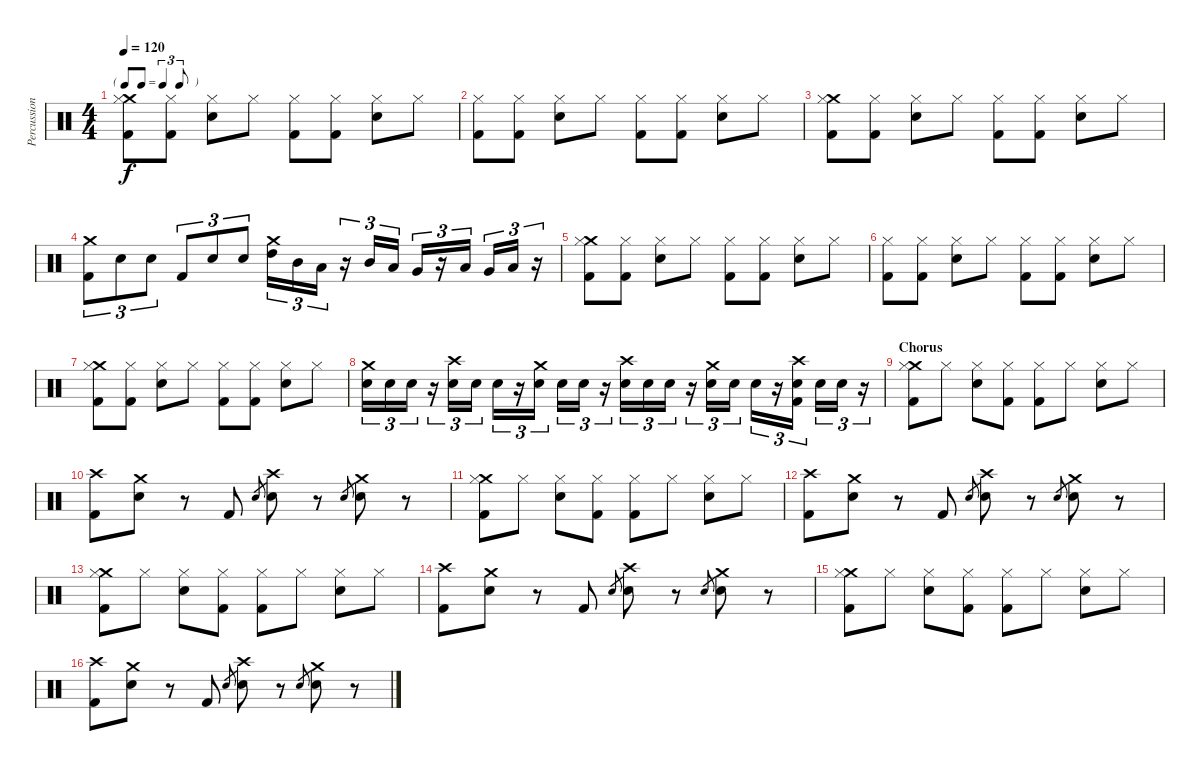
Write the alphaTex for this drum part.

\track ("Percussion" "Percussion") {instrument percussion}
\staff {score}
\articulation defaults
\ts (4 4)
\tf triplet8th
\tempo 120
\clef neutral
\ks c
("Crash medium (hit)" "Hi-Hat (closed)" "Kick (hit) 2").8{dy f} ("Hi-Hat (closed)" "Kick (hit) 2").8 ("Hi-Hat (closed)" "Electric Snare (hit)").8 "Hi-Hat (closed)".8 ("Hi-Hat (closed)" "Kick (hit) 2").8 ("Hi-Hat (closed)" "Kick (hit) 2").8 ("Hi-Hat (closed)" "Electric Snare (hit)").8 "Hi-Hat (closed)".8 |
("Hi-Hat (closed)" "Kick (hit) 2").8 ("Hi-Hat (closed)" "Kick (hit) 2").8 ("Hi-Hat (closed)" "Electric Snare (hit)").8 "Hi-Hat (closed)".8 ("Hi-Hat (closed)" "Kick (hit) 2").8 ("Hi-Hat (closed)" "Kick (hit) 2").8 ("Hi-Hat (closed)" "Electric Snare (hit)").8 "Hi-Hat (closed)".8 |
("Crash medium (hit)" "Hi-Hat (closed)" "Kick (hit) 2").8 ("Hi-Hat (closed)" "Kick (hit) 2").8 ("Hi-Hat (closed)" "Electric Snare (hit)").8 "Hi-Hat (closed)".8 ("Hi-Hat (closed)" "Kick (hit) 2").8 ("Hi-Hat (closed)" "Kick (hit) 2").8 ("Hi-Hat (closed)" "Electric Snare (hit)").8 "Hi-Hat (closed)".8 |
("Crash medium (hit)" "Kick (hit) 2").8{tu (3 2)} "Electric Snare (hit)".8{tu (3 2)} "Electric Snare (hit)".8{tu (3 2)} "Kick (hit) 2".8{tu (3 2)} "Electric Snare (hit)".8{tu (3 2)} "Electric Snare (hit)".8{tu (3 2)} ("Crash medium (hit)" "High Tom (hit)").16{tu (3 2)} "Mid Tom (hit)".16{tu (3 2)} "Low Tom (hit)".16{tu (3 2)} r.16{tu (3 2)} "Mid Tom (hit)".16{tu (3 2)} "Low Tom (hit)".16{tu (3 2)} "Very Low Tom (hit)".16{tu (3 2)} r.16{tu (3 2)} "Low Tom (hit)".16{tu (3 2)} "Very Low Tom (hit)".16{tu (3 2)} "Low Floor Tom (hit)".16{tu (3 2)} r.16{tu (3 2)} |
("Crash medium (hit)" "Hi-Hat (closed)" "Kick (hit) 2").8 ("Hi-Hat (closed)" "Kick (hit) 2").8 ("Hi-Hat (closed)" "Electric Snare (hit)").8 "Hi-Hat (closed)".8 ("Hi-Hat (closed)" "Kick (hit) 2").8 ("Hi-Hat (closed)" "Kick (hit) 2").8 ("Hi-Hat (closed)" "Electric Snare (hit)").8 "Hi-Hat (closed)".8 |
("Hi-Hat (closed)" "Kick (hit) 2").8 ("Hi-Hat (closed)" "Kick (hit) 2").8 ("Hi-Hat (closed)" "Electric Snare (hit)").8 "Hi-Hat (closed)".8 ("Hi-Hat (closed)" "Kick (hit) 2").8 ("Hi-Hat (closed)" "Kick (hit) 2").8 ("Hi-Hat (closed)" "Electric Snare (hit)").8 "Hi-Hat (closed)".8 |
("Crash medium (hit)" "Hi-Hat (closed)" "Kick (hit) 2").8 ("Hi-Hat (closed)" "Kick (hit) 2").8 ("Hi-Hat (closed)" "Electric Snare (hit)").8 "Hi-Hat (closed)".8 ("Hi-Hat (closed)" "Kick (hit) 2").8 ("Hi-Hat (closed)" "Kick (hit) 2").8 ("Hi-Hat (closed)" "Electric Snare (hit)").8 "Hi-Hat (closed)".8 |
("Crash medium (hit)" "Electric Snare (hit)").16{tu (3 2)} "Electric Snare (hit)".16{tu (3 2)} "Electric Snare (hit)".16{tu (3 2)} r.16{tu (3 2)} ("Crash high (hit)" "Electric Snare (hit)").16{tu (3 2)} "Electric Snare (hit)".16{tu (3 2)} "Electric Snare (hit)".16{tu (3 2)} r.16{tu (3 2)} ("Crash medium (hit)" "Electric Snare (hit)").16{tu (3 2)} "Electric Snare (hit)".16{tu (3 2)} "Electric Snare (hit)".16{tu (3 2)} r.16{tu (3 2)} ("Crash high (hit)" "Electric Snare (hit)").16{tu (3 2)} "Electric Snare (hit)".16{tu (3 2)} "Electric Snare (hit)".16{tu (3 2)} r.16{tu (3 2)} ("Crash medium (hit)" "Electric Snare (hit)").16{tu (3 2)} "Electric Snare (hit)".16{tu (3 2)} "Electric Snare (hit)".16{tu (3 2)} r.16{tu (3 2)} ("Crash high (hit)" "Electric Snare (hit)" "Kick (hit) 2").16{tu (3 2)} "Electric Snare (hit)".16{tu (3 2)} "Electric Snare (hit)".16{tu (3 2)} r.16{tu (3 2)} |
\section ("" "Chorus")
("Crash medium (hit)" "Hi-Hat (closed)" "Kick (hit) 2").8 "Hi-Hat (closed)".8 ("Hi-Hat (closed)" "Electric Snare (hit)").8 ("Hi-Hat (closed)" "Kick (hit) 2").8 ("Hi-Hat (closed)" "Kick (hit) 2").8 "Hi-Hat (closed)".8 ("Hi-Hat (closed)" "Electric Snare (hit)").8 "Hi-Hat (closed)".8 |
("Crash high (hit)" "Kick (hit) 2").8 ("Crash medium (hit)" "Electric Snare (hit)").8 r.8 "Kick (hit) 2".8 "Electric Snare (hit)".8{gr} ("Crash high (hit)" "Electric Snare (hit)").8 r.8 "Electric Snare (hit)".8{gr} ("Crash medium (hit)" "Electric Snare (hit)").8 r.8 |
("Crash medium (hit)" "Hi-Hat (closed)" "Kick (hit) 2").8 "Hi-Hat (closed)".8 ("Hi-Hat (closed)" "Electric Snare (hit)").8 ("Hi-Hat (closed)" "Kick (hit) 2").8 ("Hi-Hat (closed)" "Kick (hit) 2").8 "Hi-Hat (closed)".8 ("Hi-Hat (closed)" "Electric Snare (hit)").8 "Hi-Hat (closed)".8 |
("Crash high (hit)" "Kick (hit) 2").8 ("Crash medium (hit)" "Electric Snare (hit)").8 r.8 "Kick (hit) 2".8 "Electric Snare (hit)".8{gr} ("Crash high (hit)" "Electric Snare (hit)").8 r.8 "Electric Snare (hit)".8{gr} ("Crash medium (hit)" "Electric Snare (hit)").8 r.8 |
("Crash medium (hit)" "Hi-Hat (closed)" "Kick (hit) 2").8 "Hi-Hat (closed)".8 ("Hi-Hat (closed)" "Electric Snare (hit)").8 ("Hi-Hat (closed)" "Kick (hit) 2").8 ("Hi-Hat (closed)" "Kick (hit) 2").8 "Hi-Hat (closed)".8 ("Hi-Hat (closed)" "Electric Snare (hit)").8 "Hi-Hat (closed)".8 |
("Crash high (hit)" "Kick (hit) 2").8 ("Crash medium (hit)" "Electric Snare (hit)").8 r.8 "Kick (hit) 2".8 "Electric Snare (hit)".8{gr} ("Crash high (hit)" "Electric Snare (hit)").8 r.8 "Electric Snare (hit)".8{gr} ("Crash medium (hit)" "Electric Snare (hit)").8 r.8 |
("Crash medium (hit)" "Hi-Hat (closed)" "Kick (hit) 2").8 "Hi-Hat (closed)".8 ("Hi-Hat (closed)" "Electric Snare (hit)").8 ("Hi-Hat (closed)" "Kick (hit) 2").8 ("Hi-Hat (closed)" "Kick (hit) 2").8 "Hi-Hat (closed)".8 ("Hi-Hat (closed)" "Electric Snare (hit)").8 "Hi-Hat (closed)".8 |
("Crash high (hit)" "Kick (hit) 2").8 ("Crash medium (hit)" "Electric Snare (hit)").8 r.8 "Kick (hit) 2".8 "Electric Snare (hit)".8{gr} ("Crash high (hit)" "Electric Snare (hit)").8 r.8 "Electric Snare (hit)".8{gr} ("Crash medium (hit)" "Electric Snare (hit)").8 r.8
